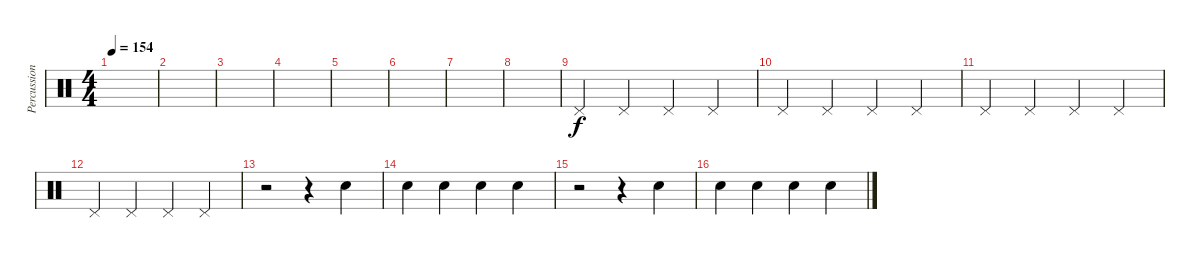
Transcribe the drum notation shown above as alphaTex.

\track ("Percussion" "Percussion") {instrument percussion}
\staff {score}
\articulation defaults
\ts (4 4)
\tempo 154
\clef neutral
\ks c
|
|
|
|
|
|
|
|
"Pedal Hi-Hat (hit)".4 "Pedal Hi-Hat (hit)".4 "Pedal Hi-Hat (hit)".4 "Pedal Hi-Hat (hit)".4 |
"Pedal Hi-Hat (hit)".4 "Pedal Hi-Hat (hit)".4 "Pedal Hi-Hat (hit)".4 "Pedal Hi-Hat (hit)".4 |
"Pedal Hi-Hat (hit)".4 "Pedal Hi-Hat (hit)".4 "Pedal Hi-Hat (hit)".4 "Pedal Hi-Hat (hit)".4 |
"Pedal Hi-Hat (hit)".4 "Pedal Hi-Hat (hit)".4 "Pedal Hi-Hat (hit)".4 "Pedal Hi-Hat (hit)".4 |
r.2 r.4 "Metronome (bell)".4 |
"Metronome (bell)".4 "Metronome (bell)".4 "Metronome (bell)".4 "Metronome (bell)".4 |
r.2 r.4 "Metronome (bell)".4 |
"Metronome (bell)".4 "Metronome (bell)".4 "Metronome (bell)".4 "Metronome (bell)".4
